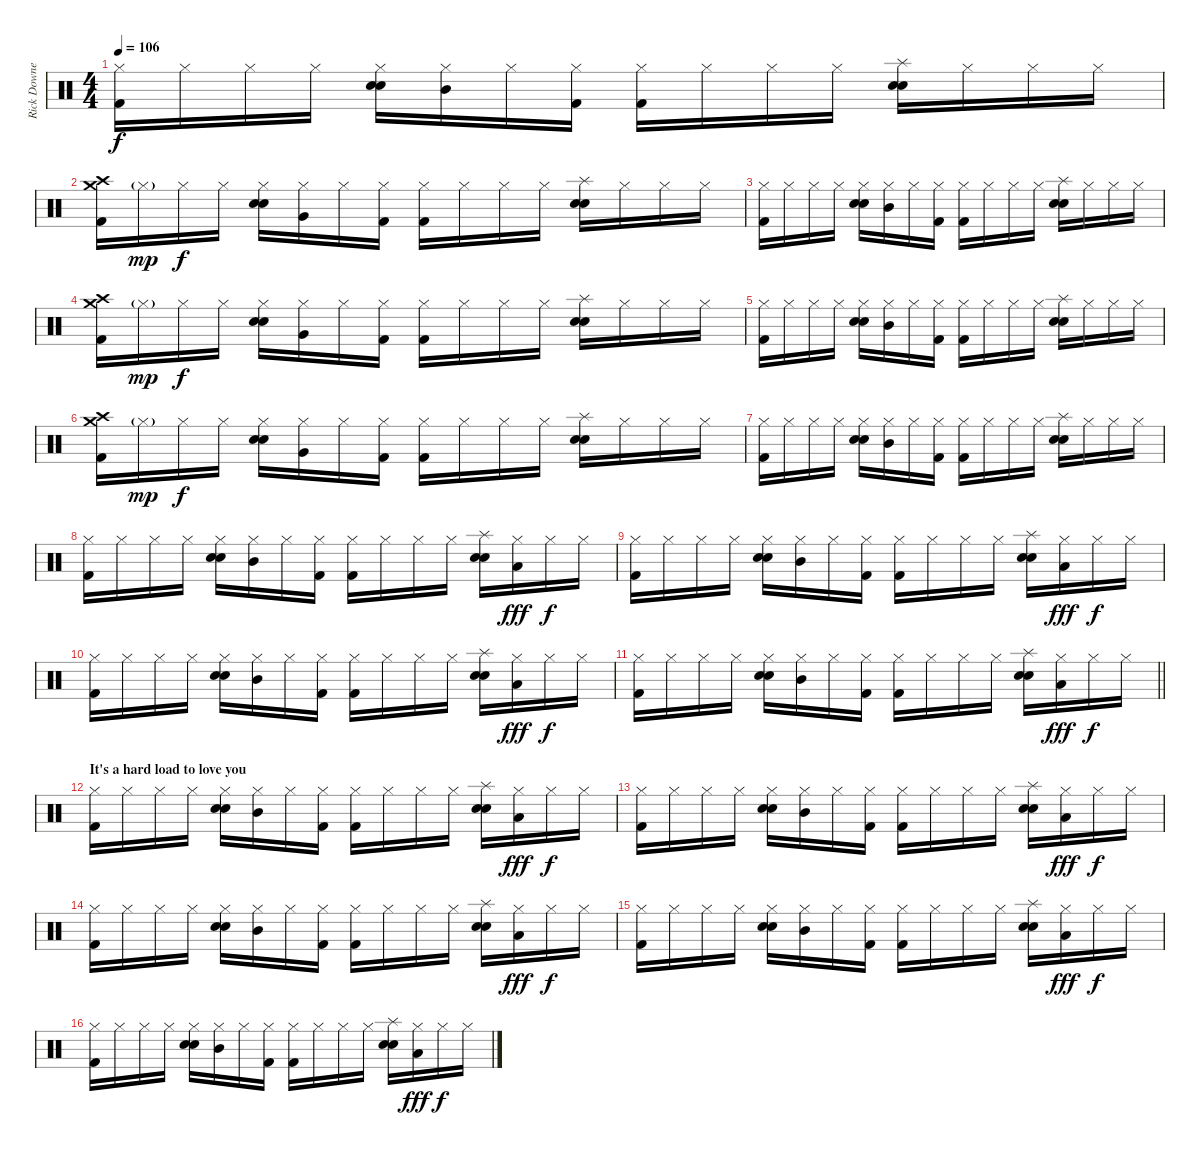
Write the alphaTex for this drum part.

\track ("Rick Downey" "Rick Downe") {instrument percussion}
\staff {score}
\articulation defaults
\ts (4 4)
\tempo 106
\clef neutral
\ks c
("Hi-Hat (closed)" "Kick (hit) 2").16{dy f} "Hi-Hat (closed)".16 "Hi-Hat (closed)".16 "Hi-Hat (closed)".16 ("Hi-Hat (closed)" "Electric Snare (hit)" "Snare (hit) 2").16 ("Mid Tom (hit)" "Hi-Hat (closed)").16 "Hi-Hat (closed)".16 ("Hi-Hat (closed)" "Kick (hit) 2").16 ("Hi-Hat (closed)" "Kick (hit) 2").16 "Hi-Hat (closed)".16 "Hi-Hat (closed)".16 "Hi-Hat (closed)".16 ("Splash (hit)" "Electric Snare (hit)" "Snare (hit) 2").16 "Hi-Hat (closed)".16 "Hi-Hat (closed)".16 "Hi-Hat (closed)".16 |
("Crash medium (hit)" "Crash high (hit)" "Kick (hit) 2").16 "Hi-Hat (closed)"{g}.16{dy mp} "Hi-Hat (closed)".16{dy f} "Hi-Hat (closed)".16 ("Hi-Hat (closed)" "Electric Snare (hit)" "Snare (hit) 2").16 ("Hi-Hat (closed)" "Very Low Tom (hit)").16 "Hi-Hat (closed)".16 ("Hi-Hat (closed)" "Kick (hit) 2").16 ("Hi-Hat (closed)" "Kick (hit) 2").16 "Hi-Hat (closed)".16 "Hi-Hat (closed)".16 "Hi-Hat (closed)".16 ("Splash (hit)" "Electric Snare (hit)" "Snare (hit) 2").16 "Hi-Hat (closed)".16 "Hi-Hat (closed)".16 "Hi-Hat (closed)".16 |
("Hi-Hat (closed)" "Kick (hit) 2").16 "Hi-Hat (closed)".16 "Hi-Hat (closed)".16 "Hi-Hat (closed)".16 ("Hi-Hat (closed)" "Electric Snare (hit)" "Snare (hit) 2").16 ("Mid Tom (hit)" "Hi-Hat (closed)").16 "Hi-Hat (closed)".16 ("Hi-Hat (closed)" "Kick (hit) 2").16 ("Hi-Hat (closed)" "Kick (hit) 2").16 "Hi-Hat (closed)".16 "Hi-Hat (closed)".16 "Hi-Hat (closed)".16 ("Splash (hit)" "Electric Snare (hit)" "Snare (hit) 2").16 "Hi-Hat (closed)".16 "Hi-Hat (closed)".16 "Hi-Hat (closed)".16 |
("Crash medium (hit)" "Crash high (hit)" "Kick (hit) 2").16 "Hi-Hat (closed)"{g}.16{dy mp} "Hi-Hat (closed)".16{dy f} "Hi-Hat (closed)".16 ("Hi-Hat (closed)" "Electric Snare (hit)" "Snare (hit) 2").16 ("Hi-Hat (closed)" "Very Low Tom (hit)").16 "Hi-Hat (closed)".16 ("Hi-Hat (closed)" "Kick (hit) 2").16 ("Hi-Hat (closed)" "Kick (hit) 2").16 "Hi-Hat (closed)".16 "Hi-Hat (closed)".16 "Hi-Hat (closed)".16 ("Splash (hit)" "Electric Snare (hit)" "Snare (hit) 2").16 "Hi-Hat (closed)".16 "Hi-Hat (closed)".16 "Hi-Hat (closed)".16 |
("Hi-Hat (closed)" "Kick (hit) 2").16 "Hi-Hat (closed)".16 "Hi-Hat (closed)".16 "Hi-Hat (closed)".16 ("Hi-Hat (closed)" "Electric Snare (hit)" "Snare (hit) 2").16 ("Mid Tom (hit)" "Hi-Hat (closed)").16 "Hi-Hat (closed)".16 ("Hi-Hat (closed)" "Kick (hit) 2").16 ("Hi-Hat (closed)" "Kick (hit) 2").16 "Hi-Hat (closed)".16 "Hi-Hat (closed)".16 "Hi-Hat (closed)".16 ("Splash (hit)" "Electric Snare (hit)" "Snare (hit) 2").16 "Hi-Hat (closed)".16 "Hi-Hat (closed)".16 "Hi-Hat (closed)".16 |
("Crash medium (hit)" "Crash high (hit)" "Kick (hit) 2").16 "Hi-Hat (closed)"{g}.16{dy mp} "Hi-Hat (closed)".16{dy f} "Hi-Hat (closed)".16 ("Hi-Hat (closed)" "Electric Snare (hit)" "Snare (hit) 2").16 ("Hi-Hat (closed)" "Very Low Tom (hit)").16 "Hi-Hat (closed)".16 ("Hi-Hat (closed)" "Kick (hit) 2").16 ("Hi-Hat (closed)" "Kick (hit) 2").16 "Hi-Hat (closed)".16 "Hi-Hat (closed)".16 "Hi-Hat (closed)".16 ("Splash (hit)" "Electric Snare (hit)" "Snare (hit) 2").16 "Hi-Hat (closed)".16 "Hi-Hat (closed)".16 "Hi-Hat (closed)".16 |
("Hi-Hat (closed)" "Kick (hit) 2").16 "Hi-Hat (closed)".16 "Hi-Hat (closed)".16 "Hi-Hat (closed)".16 ("Hi-Hat (closed)" "Electric Snare (hit)" "Snare (hit) 2").16 ("Mid Tom (hit)" "Hi-Hat (closed)").16 "Hi-Hat (closed)".16 ("Hi-Hat (closed)" "Kick (hit) 2").16 ("Hi-Hat (closed)" "Kick (hit) 2").16 "Hi-Hat (closed)".16 "Hi-Hat (closed)".16 "Hi-Hat (closed)".16 ("Splash (hit)" "Electric Snare (hit)" "Snare (hit) 2").16 "Hi-Hat (closed)".16 "Hi-Hat (closed)".16 "Hi-Hat (closed)".16 |
("Hi-Hat (closed)" "Kick (hit) 2").16 "Hi-Hat (closed)".16 "Hi-Hat (closed)".16 "Hi-Hat (closed)".16 ("Hi-Hat (closed)" "Electric Snare (hit)" "Snare (hit) 2").16 ("Mid Tom (hit)" "Hi-Hat (closed)").16 "Hi-Hat (closed)".16 ("Hi-Hat (closed)" "Kick (hit) 2").16 ("Hi-Hat (closed)" "Kick (hit) 2").16 "Hi-Hat (closed)".16 "Hi-Hat (closed)".16 "Hi-Hat (closed)".16 ("Splash (hit)" "Electric Snare (hit)" "Snare (hit) 2").16 ("Low Tom (hit)" "Hi-Hat (closed)").16{dy fff} "Hi-Hat (closed)".16{dy f} "Hi-Hat (closed)".16 |
("Hi-Hat (closed)" "Kick (hit) 2").16 "Hi-Hat (closed)".16 "Hi-Hat (closed)".16 "Hi-Hat (closed)".16 ("Hi-Hat (closed)" "Electric Snare (hit)" "Snare (hit) 2").16 ("Mid Tom (hit)" "Hi-Hat (closed)").16 "Hi-Hat (closed)".16 ("Hi-Hat (closed)" "Kick (hit) 2").16 ("Hi-Hat (closed)" "Kick (hit) 2").16 "Hi-Hat (closed)".16 "Hi-Hat (closed)".16 "Hi-Hat (closed)".16 ("Splash (hit)" "Electric Snare (hit)" "Snare (hit) 2").16 ("Low Tom (hit)" "Hi-Hat (closed)").16{dy fff} "Hi-Hat (closed)".16{dy f} "Hi-Hat (closed)".16 |
("Hi-Hat (closed)" "Kick (hit) 2").16 "Hi-Hat (closed)".16 "Hi-Hat (closed)".16 "Hi-Hat (closed)".16 ("Hi-Hat (closed)" "Electric Snare (hit)" "Snare (hit) 2").16 ("Mid Tom (hit)" "Hi-Hat (closed)").16 "Hi-Hat (closed)".16 ("Hi-Hat (closed)" "Kick (hit) 2").16 ("Hi-Hat (closed)" "Kick (hit) 2").16 "Hi-Hat (closed)".16 "Hi-Hat (closed)".16 "Hi-Hat (closed)".16 ("Splash (hit)" "Electric Snare (hit)" "Snare (hit) 2").16 ("Low Tom (hit)" "Hi-Hat (closed)").16{dy fff} "Hi-Hat (closed)".16{dy f} "Hi-Hat (closed)".16 |
\barLineRight lightlight
("Hi-Hat (closed)" "Kick (hit) 2").16 "Hi-Hat (closed)".16 "Hi-Hat (closed)".16 "Hi-Hat (closed)".16 ("Hi-Hat (closed)" "Electric Snare (hit)" "Snare (hit) 2").16 ("Mid Tom (hit)" "Hi-Hat (closed)").16 "Hi-Hat (closed)".16 ("Hi-Hat (closed)" "Kick (hit) 2").16 ("Hi-Hat (closed)" "Kick (hit) 2").16 "Hi-Hat (closed)".16 "Hi-Hat (closed)".16 "Hi-Hat (closed)".16 ("Splash (hit)" "Electric Snare (hit)" "Snare (hit) 2").16 ("Low Tom (hit)" "Hi-Hat (closed)").16{dy fff} "Hi-Hat (closed)".16{dy f} "Hi-Hat (closed)".16 |
\section ("" "It's a hard load to love you")
("Hi-Hat (closed)" "Kick (hit) 2").16 "Hi-Hat (closed)".16 "Hi-Hat (closed)".16 "Hi-Hat (closed)".16 ("Hi-Hat (closed)" "Electric Snare (hit)" "Snare (hit) 2").16 ("Mid Tom (hit)" "Hi-Hat (closed)").16 "Hi-Hat (closed)".16 ("Hi-Hat (closed)" "Kick (hit) 2").16 ("Hi-Hat (closed)" "Kick (hit) 2").16 "Hi-Hat (closed)".16 "Hi-Hat (closed)".16 "Hi-Hat (closed)".16 ("Splash (hit)" "Electric Snare (hit)" "Snare (hit) 2").16 ("Low Tom (hit)" "Hi-Hat (closed)").16{dy fff} "Hi-Hat (closed)".16{dy f} "Hi-Hat (closed)".16 |
("Hi-Hat (closed)" "Kick (hit) 2").16 "Hi-Hat (closed)".16 "Hi-Hat (closed)".16 "Hi-Hat (closed)".16 ("Hi-Hat (closed)" "Electric Snare (hit)" "Snare (hit) 2").16 ("Mid Tom (hit)" "Hi-Hat (closed)").16 "Hi-Hat (closed)".16 ("Hi-Hat (closed)" "Kick (hit) 2").16 ("Hi-Hat (closed)" "Kick (hit) 2").16 "Hi-Hat (closed)".16 "Hi-Hat (closed)".16 "Hi-Hat (closed)".16 ("Splash (hit)" "Electric Snare (hit)" "Snare (hit) 2").16 ("Low Tom (hit)" "Hi-Hat (closed)").16{dy fff} "Hi-Hat (closed)".16{dy f} "Hi-Hat (closed)".16 |
("Hi-Hat (closed)" "Kick (hit) 2").16 "Hi-Hat (closed)".16 "Hi-Hat (closed)".16 "Hi-Hat (closed)".16 ("Hi-Hat (closed)" "Electric Snare (hit)" "Snare (hit) 2").16 ("Mid Tom (hit)" "Hi-Hat (closed)").16 "Hi-Hat (closed)".16 ("Hi-Hat (closed)" "Kick (hit) 2").16 ("Hi-Hat (closed)" "Kick (hit) 2").16 "Hi-Hat (closed)".16 "Hi-Hat (closed)".16 "Hi-Hat (closed)".16 ("Splash (hit)" "Electric Snare (hit)" "Snare (hit) 2").16 ("Low Tom (hit)" "Hi-Hat (closed)").16{dy fff} "Hi-Hat (closed)".16{dy f} "Hi-Hat (closed)".16 |
("Hi-Hat (closed)" "Kick (hit) 2").16 "Hi-Hat (closed)".16 "Hi-Hat (closed)".16 "Hi-Hat (closed)".16 ("Hi-Hat (closed)" "Electric Snare (hit)" "Snare (hit) 2").16 ("Mid Tom (hit)" "Hi-Hat (closed)").16 "Hi-Hat (closed)".16 ("Hi-Hat (closed)" "Kick (hit) 2").16 ("Hi-Hat (closed)" "Kick (hit) 2").16 "Hi-Hat (closed)".16 "Hi-Hat (closed)".16 "Hi-Hat (closed)".16 ("Splash (hit)" "Electric Snare (hit)" "Snare (hit) 2").16 ("Low Tom (hit)" "Hi-Hat (closed)").16{dy fff} "Hi-Hat (closed)".16{dy f} "Hi-Hat (closed)".16 |
("Hi-Hat (closed)" "Kick (hit) 2").16 "Hi-Hat (closed)".16 "Hi-Hat (closed)".16 "Hi-Hat (closed)".16 ("Hi-Hat (closed)" "Electric Snare (hit)" "Snare (hit) 2").16 ("Mid Tom (hit)" "Hi-Hat (closed)").16 "Hi-Hat (closed)".16 ("Hi-Hat (closed)" "Kick (hit) 2").16 ("Hi-Hat (closed)" "Kick (hit) 2").16 "Hi-Hat (closed)".16 "Hi-Hat (closed)".16 "Hi-Hat (closed)".16 ("Splash (hit)" "Electric Snare (hit)" "Snare (hit) 2").16 ("Low Tom (hit)" "Hi-Hat (closed)").16{dy fff} "Hi-Hat (closed)".16{dy f} "Hi-Hat (closed)".16
